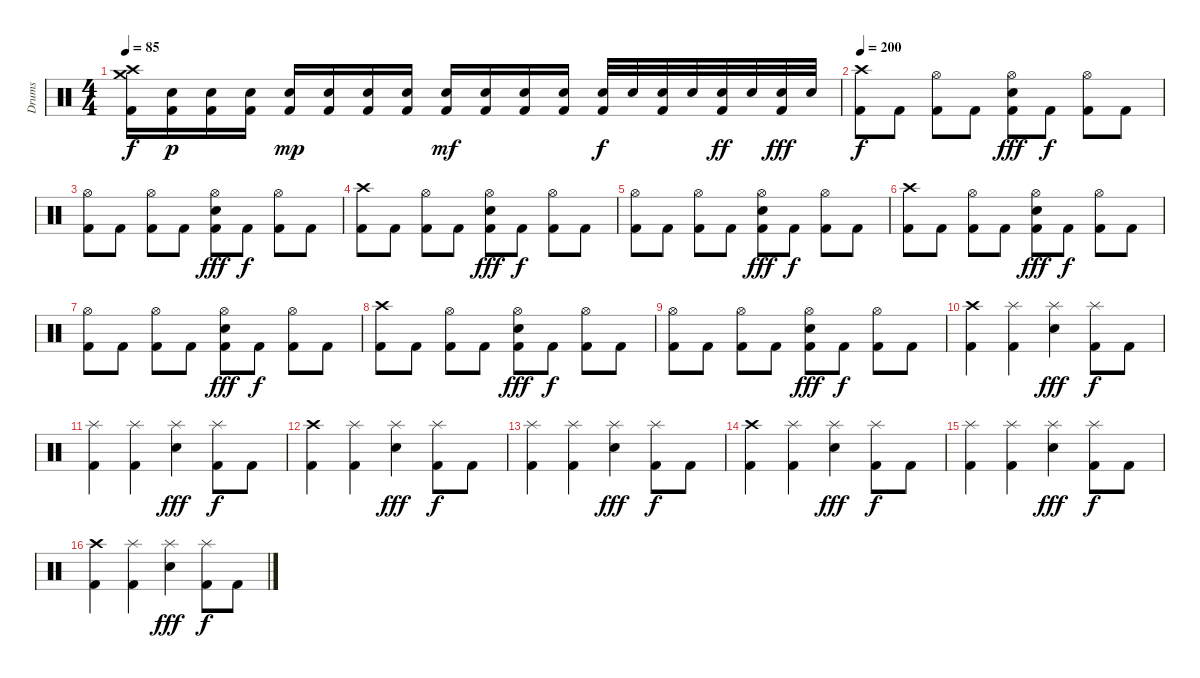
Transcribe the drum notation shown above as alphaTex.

\track ("Drums" "Drums") {instrument percussion}
\staff {score}
\articulation defaults
\ts (4 4)
\tempo 85
\clef neutral
\ks c
("Crash high (hit)" "Crash medium (hit)" "Kick (hit) 2").16{dy f} ("Snare (hit) 2" "Kick (hit) 2").16{dy p} ("Snare (hit) 2" "Kick (hit) 2").16 ("Snare (hit) 2" "Kick (hit) 2").16 ("Snare (hit) 2" "Kick (hit) 2").16{dy mp} ("Snare (hit) 2" "Kick (hit) 2").16 ("Snare (hit) 2" "Kick (hit) 2").16 ("Snare (hit) 2" "Kick (hit) 2").16 ("Snare (hit) 2" "Kick (hit) 2").16{dy mf} ("Snare (hit) 2" "Kick (hit) 2").16 ("Snare (hit) 2" "Kick (hit) 2").16 ("Snare (hit) 2" "Kick (hit) 2").16 ("Snare (hit) 2" "Kick (hit) 2").32{dy f} "Snare (hit) 2".32 ("Snare (hit) 2" "Kick (hit) 2").32 "Snare (hit) 2".32 ("Snare (hit) 2" "Kick (hit) 2").32{dy ff} "Snare (hit) 2".32 ("Snare (hit) 2" "Kick (hit) 2").32{dy fff} "Snare (hit) 2".32 |
\tempo 200
("Crash high (hit)" "Kick (hit) 2").8{dy f} "Kick (hit) 2".8 ("Hi-Hat (open)" "Kick (hit) 2").8 "Kick (hit) 2".8 ("Hi-Hat (open)" "Snare (hit) 2" "Kick (hit) 2").8{dy fff} "Kick (hit) 2".8{dy f} ("Hi-Hat (open)" "Kick (hit) 2").8 "Kick (hit) 2".8 |
("Hi-Hat (open)" "Kick (hit) 2").8 "Kick (hit) 2".8 ("Hi-Hat (open)" "Kick (hit) 2").8 "Kick (hit) 2".8 ("Hi-Hat (open)" "Snare (hit) 2" "Kick (hit) 2").8{dy fff} "Kick (hit) 2".8{dy f} ("Hi-Hat (open)" "Kick (hit) 2").8 "Kick (hit) 2".8 |
("Crash high (hit)" "Kick (hit) 2").8 "Kick (hit) 2".8 ("Hi-Hat (open)" "Kick (hit) 2").8 "Kick (hit) 2".8 ("Hi-Hat (open)" "Snare (hit) 2" "Kick (hit) 2").8{dy fff} "Kick (hit) 2".8{dy f} ("Hi-Hat (open)" "Kick (hit) 2").8 "Kick (hit) 2".8 |
("Hi-Hat (open)" "Kick (hit) 2").8 "Kick (hit) 2".8 ("Hi-Hat (open)" "Kick (hit) 2").8 "Kick (hit) 2".8 ("Hi-Hat (open)" "Snare (hit) 2" "Kick (hit) 2").8{dy fff} "Kick (hit) 2".8{dy f} ("Hi-Hat (open)" "Kick (hit) 2").8 "Kick (hit) 2".8 |
("Crash high (hit)" "Kick (hit) 2").8 "Kick (hit) 2".8 ("Hi-Hat (open)" "Kick (hit) 2").8 "Kick (hit) 2".8 ("Hi-Hat (open)" "Snare (hit) 2" "Kick (hit) 2").8{dy fff} "Kick (hit) 2".8{dy f} ("Hi-Hat (open)" "Kick (hit) 2").8 "Kick (hit) 2".8 |
("Hi-Hat (open)" "Kick (hit) 2").8 "Kick (hit) 2".8 ("Hi-Hat (open)" "Kick (hit) 2").8 "Kick (hit) 2".8 ("Hi-Hat (open)" "Snare (hit) 2" "Kick (hit) 2").8{dy fff} "Kick (hit) 2".8{dy f} ("Hi-Hat (open)" "Kick (hit) 2").8 "Kick (hit) 2".8 |
("Crash high (hit)" "Kick (hit) 2").8 "Kick (hit) 2".8 ("Hi-Hat (open)" "Kick (hit) 2").8 "Kick (hit) 2".8 ("Hi-Hat (open)" "Snare (hit) 2" "Kick (hit) 2").8{dy fff} "Kick (hit) 2".8{dy f} ("Hi-Hat (open)" "Kick (hit) 2").8 "Kick (hit) 2".8 |
("Hi-Hat (open)" "Kick (hit) 2").8 "Kick (hit) 2".8 ("Hi-Hat (open)" "Kick (hit) 2").8 "Kick (hit) 2".8 ("Hi-Hat (open)" "Snare (hit) 2" "Kick (hit) 2").8{dy fff} "Kick (hit) 2".8{dy f} ("Hi-Hat (open)" "Kick (hit) 2").8 "Kick (hit) 2".8 |
("Crash high (hit)" "Kick (hit) 2").4 ("Splash (hit)" "Kick (hit) 2").4 ("Splash (hit)" "Snare (hit) 2").4{dy fff} ("Splash (hit)" "Kick (hit) 2").8{dy f} "Kick (hit) 2".8 |
("Splash (hit)" "Kick (hit) 2").4 ("Splash (hit)" "Kick (hit) 2").4 ("Splash (hit)" "Snare (hit) 2").4{dy fff} ("Splash (hit)" "Kick (hit) 2").8{dy f} "Kick (hit) 2".8 |
("Crash high (hit)" "Kick (hit) 2").4 ("Splash (hit)" "Kick (hit) 2").4 ("Splash (hit)" "Snare (hit) 2").4{dy fff} ("Splash (hit)" "Kick (hit) 2").8{dy f} "Kick (hit) 2".8 |
("Splash (hit)" "Kick (hit) 2").4 ("Splash (hit)" "Kick (hit) 2").4 ("Splash (hit)" "Snare (hit) 2").4{dy fff} ("Splash (hit)" "Kick (hit) 2").8{dy f} "Kick (hit) 2".8 |
("Crash high (hit)" "Kick (hit) 2").4 ("Splash (hit)" "Kick (hit) 2").4 ("Splash (hit)" "Snare (hit) 2").4{dy fff} ("Splash (hit)" "Kick (hit) 2").8{dy f} "Kick (hit) 2".8 |
("Splash (hit)" "Kick (hit) 2").4 ("Splash (hit)" "Kick (hit) 2").4 ("Splash (hit)" "Snare (hit) 2").4{dy fff} ("Splash (hit)" "Kick (hit) 2").8{dy f} "Kick (hit) 2".8 |
("Crash high (hit)" "Kick (hit) 2").4 ("Splash (hit)" "Kick (hit) 2").4 ("Splash (hit)" "Snare (hit) 2").4{dy fff} ("Splash (hit)" "Kick (hit) 2").8{dy f} "Kick (hit) 2".8
